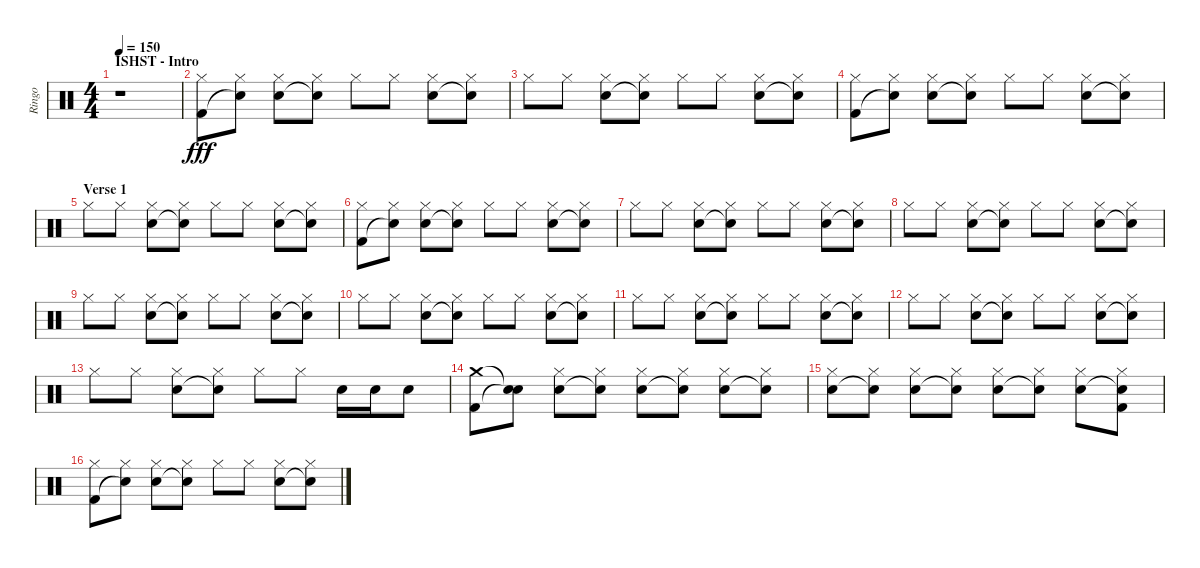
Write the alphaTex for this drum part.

\track ("Ringo" "Ringo") {instrument percussion}
\staff {score}
\articulation defaults
\ts (4 4)
\section ("" "ISHST - Intro   ")
\tempo 150
\clef neutral
\ks c
r.1{dy fff} |
("Hi-Hat (closed)" "Kick (hit) 2").8 ("Hi-Hat (closed)" "Snare (hit)"{t}).8 ("Hi-Hat (closed)" "Snare (hit) 2").8 ("Hi-Hat (closed)" "Snare (hit)"{t}).8 "Hi-Hat (closed)".8 "Hi-Hat (closed)".8 ("Hi-Hat (closed)" "Snare (hit) 2").8 ("Hi-Hat (closed)" "Snare (hit)"{t}).8 |
"Hi-Hat (closed)".8 "Hi-Hat (closed)".8 ("Hi-Hat (closed)" "Snare (hit) 2").8 ("Hi-Hat (closed)" "Snare (hit)"{t}).8 "Hi-Hat (closed)".8 "Hi-Hat (closed)".8 ("Hi-Hat (closed)" "Snare (hit) 2").8 ("Hi-Hat (closed)" "Snare (hit)"{t}).8 |
("Hi-Hat (closed)" "Kick (hit) 2").8 ("Hi-Hat (closed)" "Snare (hit)"{t}).8 ("Hi-Hat (closed)" "Snare (hit) 2").8 ("Hi-Hat (closed)" "Snare (hit)"{t}).8 "Hi-Hat (closed)".8 "Hi-Hat (closed)".8 ("Hi-Hat (closed)" "Snare (hit) 2").8 ("Hi-Hat (closed)" "Snare (hit)"{t}).8 |
\section ("" "Verse 1")
"Hi-Hat (closed)".8 "Hi-Hat (closed)".8 ("Hi-Hat (closed)" "Snare (hit) 2").8 ("Hi-Hat (closed)" "Snare (hit)"{t}).8 "Hi-Hat (closed)".8 "Hi-Hat (closed)".8 ("Hi-Hat (closed)" "Snare (hit) 2").8 ("Hi-Hat (closed)" "Snare (hit)"{t}).8 |
("Hi-Hat (closed)" "Kick (hit) 2").8 ("Hi-Hat (closed)" "Snare (hit)"{t}).8 ("Hi-Hat (closed)" "Snare (hit) 2").8 ("Hi-Hat (closed)" "Snare (hit)"{t}).8 "Hi-Hat (closed)".8 "Hi-Hat (closed)".8 ("Hi-Hat (closed)" "Snare (hit) 2").8 ("Hi-Hat (closed)" "Snare (hit)"{t}).8 |
"Hi-Hat (closed)".8 "Hi-Hat (closed)".8 ("Hi-Hat (closed)" "Snare (hit) 2").8 ("Hi-Hat (closed)" "Snare (hit)"{t}).8 "Hi-Hat (closed)".8 "Hi-Hat (closed)".8 ("Hi-Hat (closed)" "Snare (hit) 2").8 ("Hi-Hat (closed)" "Snare (hit)"{t}).8 |
"Hi-Hat (closed)".8 "Hi-Hat (closed)".8 ("Hi-Hat (closed)" "Snare (hit) 2").8 ("Hi-Hat (closed)" "Snare (hit)"{t}).8 "Hi-Hat (closed)".8 "Hi-Hat (closed)".8 ("Hi-Hat (closed)" "Snare (hit) 2").8 ("Hi-Hat (closed)" "Snare (hit)"{t}).8 |
"Hi-Hat (closed)".8 "Hi-Hat (closed)".8 ("Hi-Hat (closed)" "Snare (hit) 2").8 ("Hi-Hat (closed)" "Snare (hit)"{t}).8 "Hi-Hat (closed)".8 "Hi-Hat (closed)".8 ("Hi-Hat (closed)" "Snare (hit) 2").8 ("Hi-Hat (closed)" "Snare (hit)"{t}).8 |
"Hi-Hat (closed)".8 "Hi-Hat (closed)".8 ("Hi-Hat (closed)" "Snare (hit) 2").8 ("Hi-Hat (closed)" "Snare (hit)"{t}).8 "Hi-Hat (closed)".8 "Hi-Hat (closed)".8 ("Hi-Hat (closed)" "Snare (hit) 2").8 ("Hi-Hat (closed)" "Snare (hit)"{t}).8 |
"Hi-Hat (closed)".8 "Hi-Hat (closed)".8 ("Hi-Hat (closed)" "Snare (hit) 2").8 ("Hi-Hat (closed)" "Snare (hit)"{t}).8 "Hi-Hat (closed)".8 "Hi-Hat (closed)".8 ("Hi-Hat (closed)" "Snare (hit) 2").8 ("Hi-Hat (closed)" "Snare (hit)"{t}).8 |
"Hi-Hat (closed)".8 "Hi-Hat (closed)".8 ("Hi-Hat (closed)" "Snare (hit) 2").8 ("Hi-Hat (closed)" "Snare (hit)"{t}).8 "Hi-Hat (closed)".8 "Hi-Hat (closed)".8 ("Hi-Hat (closed)" "Snare (hit) 2").8 ("Hi-Hat (closed)" "Snare (hit)"{t}).8 |
"Hi-Hat (closed)".8 "Hi-Hat (closed)".8 ("Hi-Hat (closed)" "Snare (hit) 2").8 ("Hi-Hat (closed)" "Snare (hit)"{t}).8 "Hi-Hat (closed)".8 "Hi-Hat (closed)".8 "Snare (hit) 2".16 "Snare (hit) 2".16 "Snare (hit) 2".8 |
("Crash medium (hit)" "Kick (hit) 2").8 ("Snare (hit)"{t} "Snare (hit)"{t}).8 ("Hi-Hat (closed)" "Snare (hit) 2").8 ("Hi-Hat (closed)" "Snare (hit)"{t}).8 ("Hi-Hat (closed)" "Snare (hit) 2").8 ("Hi-Hat (closed)" "Snare (hit)"{t}).8 ("Hi-Hat (closed)" "Snare (hit) 2").8 ("Hi-Hat (closed)" "Snare (hit)"{t}).8 |
("Hi-Hat (closed)" "Snare (hit) 2").8 ("Hi-Hat (closed)" "Snare (hit)"{t}).8 ("Hi-Hat (closed)" "Snare (hit) 2").8 ("Hi-Hat (closed)" "Snare (hit)"{t}).8 ("Hi-Hat (closed)" "Snare (hit) 2").8 ("Hi-Hat (closed)" "Snare (hit)"{t}).8 ("Hi-Hat (closed)" "Snare (hit) 2").8 ("Hi-Hat (closed)" "Snare (hit)"{t} "Kick (hit) 2").8 |
("Hi-Hat (closed)" "Kick (hit) 2").8 ("Hi-Hat (closed)" "Snare (hit)"{t}).8 ("Hi-Hat (closed)" "Snare (hit) 2").8 ("Hi-Hat (closed)" "Snare (hit)"{t}).8 "Hi-Hat (closed)".8 "Hi-Hat (closed)".8 ("Hi-Hat (closed)" "Snare (hit) 2").8 ("Hi-Hat (closed)" "Snare (hit)"{t}).8
